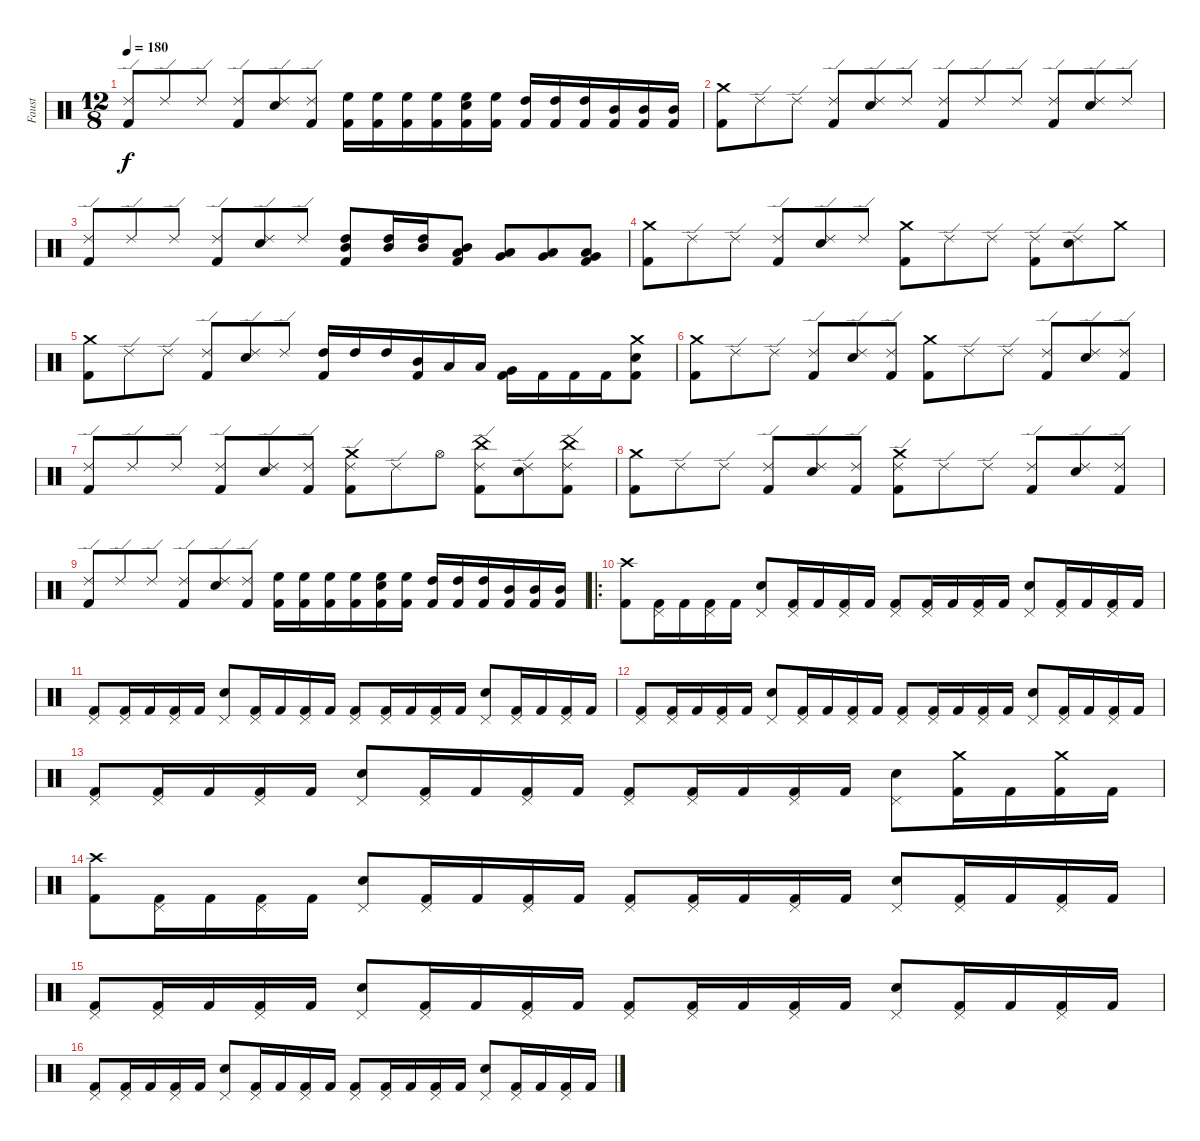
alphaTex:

\track ("Faust" "Faust") {instrument percussion}
\staff {score}
\articulation defaults
\ts (12 8)
\tempo 180
\clef neutral
\ks c
("Ride (edge) 2" "Kick (hit) 2").8{dy f} "Ride (edge) 2".8 "Ride (edge) 2".8 ("Ride (edge) 2" "Kick (hit) 2").8 ("Ride (edge) 2" "Electric Snare (hit)").8 ("Ride (edge) 2" "Kick (hit) 2").8 ("High Floor Tom (hit)" "Kick (hit) 2").16 ("High Floor Tom (hit)" "Kick (hit) 2").16 ("High Floor Tom (hit)" "Kick (hit) 2").16 ("High Floor Tom (hit)" "Kick (hit) 2").16 ("High Floor Tom (hit)" "Electric Snare (hit)" "Kick (hit) 2").16 ("High Floor Tom (hit)" "Kick (hit) 2").16 ("High Tom (hit)" "Kick (hit) 2").16 ("High Tom (hit)" "Kick (hit) 2").16 ("High Tom (hit)" "Kick (hit) 2").16 ("Mid Tom (hit)" "Kick (hit) 2").16 ("Mid Tom (hit)" "Kick (hit) 2").16 ("Mid Tom (hit)" "Kick (hit) 2").16 |
("Crash medium (hit)" "Kick (hit) 2").8 "Ride (edge) 2".8 "Ride (edge) 2".8 ("Ride (edge) 2" "Kick (hit) 2").8 ("Ride (edge) 2" "Electric Snare (hit)").8 "Ride (edge) 2".8 ("Ride (edge) 2" "Kick (hit) 2").8 "Ride (edge) 2".8 "Ride (edge) 2".8 ("Ride (edge) 2" "Kick (hit) 2").8 ("Ride (edge) 2" "Electric Snare (hit)").8 "Ride (edge) 2".8 |
("Ride (edge) 2" "Kick (hit) 2").8 "Ride (edge) 2".8 "Ride (edge) 2".8 ("Ride (edge) 2" "Kick (hit) 2").8 ("Ride (edge) 2" "Electric Snare (hit)").8 "Ride (edge) 2".8 ("Mid Tom (hit)" "High Tom (hit)" "Kick (hit) 2").8 ("Mid Tom (hit)" "High Tom (hit)").16 ("Mid Tom (hit)" "High Tom (hit)").16 ("Low Tom (hit)" "Mid Tom (hit)" "Kick (hit) 2").8 ("Very Low Tom (hit)" "Low Tom (hit)").8 ("Very Low Tom (hit)" "Low Tom (hit)").8 ("Low Floor Tom (hit)" "Very Low Tom (hit)" "Kick (hit) 2").8 |
("Crash medium (hit)" "Kick (hit) 2").8 "Ride (edge) 2".8 "Ride (edge) 2".8 ("Ride (edge) 2" "Kick (hit) 2").8 ("Ride (edge) 2" "Electric Snare (hit)").8 "Ride (edge) 2".8 ("Crash medium (hit)" "Kick (hit) 2").8 "Ride (edge) 2".8 "Ride (edge) 2".8 ("Ride (edge) 2" "Kick (hit) 2").8 ("Ride (edge) 2" "Electric Snare (hit)").8 "Crash medium (hit)".8 |
("Crash medium (hit)" "Kick (hit) 2").8 "Ride (edge) 2".8 "Ride (edge) 2".8 ("Ride (edge) 2" "Kick (hit) 2").8 ("Ride (edge) 2" "Electric Snare (hit)").8 "Ride (edge) 2".8 ("High Tom (hit)" "Kick (hit) 2").16 "High Tom (hit)".16 "High Tom (hit)".16 ("Mid Tom (hit)" "Kick (hit) 2").16 "Low Tom (hit)".16 "Low Tom (hit)".16 ("Very Low Tom (hit)" "Kick (hit) 2").16 "Kick (hit) 2".16 "Kick (hit) 2".16 "Kick (hit) 2".16 ("Crash medium (hit)" "Electric Snare (hit)" "Kick (hit) 2").8 |
("Crash medium (hit)" "Kick (hit) 2").8 "Ride (edge) 2".8 "Ride (edge) 2".8 ("Ride (edge) 2" "Kick (hit) 2").8 ("Ride (edge) 2" "Electric Snare (hit)").8 ("Ride (edge) 2" "Kick (hit) 2").8 ("Crash medium (hit)" "Kick (hit) 2").8 "Ride (edge) 2".8 "Ride (edge) 2".8 ("Ride (edge) 2" "Kick (hit) 2").8 ("Ride (edge) 2" "Electric Snare (hit)").8 ("Ride (edge) 2" "Kick (hit) 2").8 |
("Ride (edge) 2" "Kick (hit) 2").8 "Ride (edge) 2".8 "Ride (edge) 2".8 ("Ride (edge) 2" "Kick (hit) 2").8 ("Ride (edge) 2" "Electric Snare (hit)").8 ("Ride (edge) 2" "Kick (hit) 2").8 ("Crash medium (hit)" "Ride (edge) 2" "Kick (hit) 2").8 "Ride (edge) 2".8 "Hi-Hat (open)".8 ("China (hit)" "Ride (edge) 2" "Kick (hit) 2").8 ("Ride (edge) 2" "Electric Snare (hit)").8 ("China (hit)" "Ride (edge) 2" "Kick (hit) 2").8 |
("Crash medium (hit)" "Kick (hit) 2").8 "Ride (edge) 2".8 "Ride (edge) 2".8 ("Ride (edge) 2" "Kick (hit) 2").8 ("Ride (edge) 2" "Electric Snare (hit)").8 ("Ride (edge) 2" "Kick (hit) 2").8 ("Crash medium (hit)" "Ride (edge) 2" "Kick (hit) 2").8 "Ride (edge) 2".8 "Ride (edge) 2".8 ("Ride (edge) 2" "Kick (hit) 2").8 ("Ride (edge) 2" "Electric Snare (hit)").8 ("Ride (edge) 2" "Kick (hit) 2").8 |
("Ride (edge) 2" "Kick (hit) 2").8 "Ride (edge) 2".8 "Ride (edge) 2".8 ("Ride (edge) 2" "Kick (hit) 2").8 ("Ride (edge) 2" "Electric Snare (hit)").8 ("Ride (edge) 2" "Kick (hit) 2").8 ("High Floor Tom (hit)" "Kick (hit) 2").16 ("High Floor Tom (hit)" "Kick (hit) 2").16 ("High Floor Tom (hit)" "Kick (hit) 2").16 ("High Floor Tom (hit)" "Kick (hit) 2").16 ("High Floor Tom (hit)" "Electric Snare (hit)" "Kick (hit) 2").16 ("High Floor Tom (hit)" "Kick (hit) 2").16 ("High Tom (hit)" "Kick (hit) 2").16 ("High Tom (hit)" "Kick (hit) 2").16 ("High Tom (hit)" "Kick (hit) 2").16 ("Mid Tom (hit)" "Kick (hit) 2").16 ("Mid Tom (hit)" "Kick (hit) 2").16 ("Mid Tom (hit)" "Kick (hit) 2").16 |
\ro
("Crash high (hit)" "Kick (hit) 2").8 ("Pedal Hi-Hat (hit)" "Kick (hit) 2").16 "Kick (hit) 2".16 ("Pedal Hi-Hat (hit)" "Kick (hit) 2").16 "Kick (hit) 2".16 ("Pedal Hi-Hat (hit)" "Electric Snare (hit)").8 ("Pedal Hi-Hat (hit)" "Kick (hit) 2").16 "Kick (hit) 2".16 ("Pedal Hi-Hat (hit)" "Kick (hit) 2").16 "Kick (hit) 2".16 ("Pedal Hi-Hat (hit)" "Kick (hit) 2").8 ("Pedal Hi-Hat (hit)" "Kick (hit) 2").16 "Kick (hit) 2".16 ("Pedal Hi-Hat (hit)" "Kick (hit) 2").16 "Kick (hit) 2".16 ("Pedal Hi-Hat (hit)" "Electric Snare (hit)").8 ("Pedal Hi-Hat (hit)" "Kick (hit) 2").16 "Kick (hit) 2".16 ("Pedal Hi-Hat (hit)" "Kick (hit) 2").16 "Kick (hit) 2".16 |
("Pedal Hi-Hat (hit)" "Kick (hit) 2").8 ("Pedal Hi-Hat (hit)" "Kick (hit) 2").16 "Kick (hit) 2".16 ("Pedal Hi-Hat (hit)" "Kick (hit) 2").16 "Kick (hit) 2".16 ("Pedal Hi-Hat (hit)" "Electric Snare (hit)").8 ("Pedal Hi-Hat (hit)" "Kick (hit) 2").16 "Kick (hit) 2".16 ("Pedal Hi-Hat (hit)" "Kick (hit) 2").16 "Kick (hit) 2".16 ("Pedal Hi-Hat (hit)" "Kick (hit) 2").8 ("Pedal Hi-Hat (hit)" "Kick (hit) 2").16 "Kick (hit) 2".16 ("Pedal Hi-Hat (hit)" "Kick (hit) 2").16 "Kick (hit) 2".16 ("Pedal Hi-Hat (hit)" "Electric Snare (hit)").8 ("Pedal Hi-Hat (hit)" "Kick (hit) 2").16 "Kick (hit) 2".16 ("Pedal Hi-Hat (hit)" "Kick (hit) 2").16 "Kick (hit) 2".16 |
("Pedal Hi-Hat (hit)" "Kick (hit) 2").8 ("Pedal Hi-Hat (hit)" "Kick (hit) 2").16 "Kick (hit) 2".16 ("Pedal Hi-Hat (hit)" "Kick (hit) 2").16 "Kick (hit) 2".16 ("Pedal Hi-Hat (hit)" "Electric Snare (hit)").8 ("Pedal Hi-Hat (hit)" "Kick (hit) 2").16 "Kick (hit) 2".16 ("Pedal Hi-Hat (hit)" "Kick (hit) 2").16 "Kick (hit) 2".16 ("Pedal Hi-Hat (hit)" "Kick (hit) 2").8 ("Pedal Hi-Hat (hit)" "Kick (hit) 2").16 "Kick (hit) 2".16 ("Pedal Hi-Hat (hit)" "Kick (hit) 2").16 "Kick (hit) 2".16 ("Pedal Hi-Hat (hit)" "Electric Snare (hit)").8 ("Pedal Hi-Hat (hit)" "Kick (hit) 2").16 "Kick (hit) 2".16 ("Pedal Hi-Hat (hit)" "Kick (hit) 2").16 "Kick (hit) 2".16 |
("Pedal Hi-Hat (hit)" "Kick (hit) 2").8 ("Pedal Hi-Hat (hit)" "Kick (hit) 2").16 "Kick (hit) 2".16 ("Pedal Hi-Hat (hit)" "Kick (hit) 2").16 "Kick (hit) 2".16 ("Pedal Hi-Hat (hit)" "Electric Snare (hit)").8 ("Pedal Hi-Hat (hit)" "Kick (hit) 2").16 "Kick (hit) 2".16 ("Pedal Hi-Hat (hit)" "Kick (hit) 2").16 "Kick (hit) 2".16 ("Pedal Hi-Hat (hit)" "Kick (hit) 2").8 ("Pedal Hi-Hat (hit)" "Kick (hit) 2").16 "Kick (hit) 2".16 ("Pedal Hi-Hat (hit)" "Kick (hit) 2").16 "Kick (hit) 2".16 ("Pedal Hi-Hat (hit)" "Electric Snare (hit)").8 ("Crash medium (hit)" "Kick (hit) 2").16 "Kick (hit) 2".16 ("Crash medium (hit)" "Kick (hit) 2").16 "Kick (hit) 2".16 |
("Crash high (hit)" "Kick (hit) 2").8 ("Pedal Hi-Hat (hit)" "Kick (hit) 2").16 "Kick (hit) 2".16 ("Pedal Hi-Hat (hit)" "Kick (hit) 2").16 "Kick (hit) 2".16 ("Pedal Hi-Hat (hit)" "Electric Snare (hit)").8 ("Pedal Hi-Hat (hit)" "Kick (hit) 2").16 "Kick (hit) 2".16 ("Pedal Hi-Hat (hit)" "Kick (hit) 2").16 "Kick (hit) 2".16 ("Pedal Hi-Hat (hit)" "Kick (hit) 2").8 ("Pedal Hi-Hat (hit)" "Kick (hit) 2").16 "Kick (hit) 2".16 ("Pedal Hi-Hat (hit)" "Kick (hit) 2").16 "Kick (hit) 2".16 ("Pedal Hi-Hat (hit)" "Electric Snare (hit)").8 ("Pedal Hi-Hat (hit)" "Kick (hit) 2").16 "Kick (hit) 2".16 ("Pedal Hi-Hat (hit)" "Kick (hit) 2").16 "Kick (hit) 2".16 |
("Pedal Hi-Hat (hit)" "Kick (hit) 2").8 ("Pedal Hi-Hat (hit)" "Kick (hit) 2").16 "Kick (hit) 2".16 ("Pedal Hi-Hat (hit)" "Kick (hit) 2").16 "Kick (hit) 2".16 ("Pedal Hi-Hat (hit)" "Electric Snare (hit)").8 ("Pedal Hi-Hat (hit)" "Kick (hit) 2").16 "Kick (hit) 2".16 ("Pedal Hi-Hat (hit)" "Kick (hit) 2").16 "Kick (hit) 2".16 ("Pedal Hi-Hat (hit)" "Kick (hit) 2").8 ("Pedal Hi-Hat (hit)" "Kick (hit) 2").16 "Kick (hit) 2".16 ("Pedal Hi-Hat (hit)" "Kick (hit) 2").16 "Kick (hit) 2".16 ("Pedal Hi-Hat (hit)" "Electric Snare (hit)").8 ("Pedal Hi-Hat (hit)" "Kick (hit) 2").16 "Kick (hit) 2".16 ("Pedal Hi-Hat (hit)" "Kick (hit) 2").16 "Kick (hit) 2".16 |
("Pedal Hi-Hat (hit)" "Kick (hit) 2").8 ("Pedal Hi-Hat (hit)" "Kick (hit) 2").16 "Kick (hit) 2".16 ("Pedal Hi-Hat (hit)" "Kick (hit) 2").16 "Kick (hit) 2".16 ("Pedal Hi-Hat (hit)" "Electric Snare (hit)").8 ("Pedal Hi-Hat (hit)" "Kick (hit) 2").16 "Kick (hit) 2".16 ("Pedal Hi-Hat (hit)" "Kick (hit) 2").16 "Kick (hit) 2".16 ("Pedal Hi-Hat (hit)" "Kick (hit) 2").8 ("Pedal Hi-Hat (hit)" "Kick (hit) 2").16 "Kick (hit) 2".16 ("Pedal Hi-Hat (hit)" "Kick (hit) 2").16 "Kick (hit) 2".16 ("Pedal Hi-Hat (hit)" "Electric Snare (hit)").8 ("Pedal Hi-Hat (hit)" "Kick (hit) 2").16 "Kick (hit) 2".16 ("Pedal Hi-Hat (hit)" "Kick (hit) 2").16 "Kick (hit) 2".16
